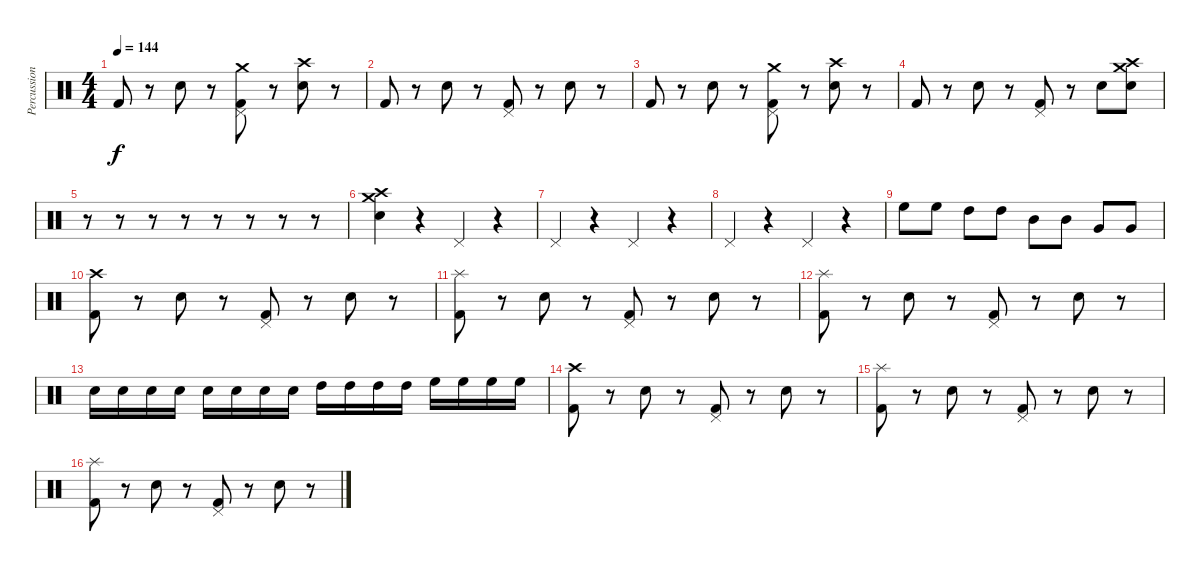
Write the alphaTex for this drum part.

\track ("Percussion" "Percussion") {instrument percussion}
\staff {score}
\articulation defaults
\ts (4 4)
\tempo 144
\clef neutral
\ks c "Kick (hit) 2".8{dy f}
r.8 "Snare (hit) 2".8 r.8 ("Pedal Hi-Hat (hit)" "Kick (hit) 2" "Crash medium (hit)").8 r.8 ("Snare (hit) 2" "Crash high (hit)").8 r.8 |
"Kick (hit) 2".8 r.8 "Snare (hit) 2".8 r.8 ("Pedal Hi-Hat (hit)" "Kick (hit) 2").8 r.8 "Snare (hit) 2".8 r.8 |
"Kick (hit) 2".8 r.8 "Snare (hit) 2".8 r.8 ("Pedal Hi-Hat (hit)" "Kick (hit) 2" "Crash medium (hit)").8 r.8 ("Snare (hit) 2" "Crash high (hit)").8 r.8 |
"Kick (hit) 2".8 r.8 "Snare (hit) 2".8 r.8 ("Pedal Hi-Hat (hit)" "Kick (hit) 2").8 r.8 "Snare (hit) 2".8 ("Snare (hit) 2" "Crash medium (hit)" "Crash high (hit)").8 |
r.8 r.8 r.8 r.8 r.8 r.8 r.8 r.8 |
("Crash medium (hit)" "Crash high (hit)" "Snare (hit) 2").4 r.4 "Pedal Hi-Hat (hit)".4 r.4 |
"Pedal Hi-Hat (hit)".4 r.4 "Pedal Hi-Hat (hit)".4 r.4 |
"Pedal Hi-Hat (hit)".4 r.4 "Pedal Hi-Hat (hit)".4 r.4 |
"High Floor Tom (hit)".8 "High Floor Tom (hit)".8 "High Tom (hit)".8 "High Tom (hit)".8 "Mid Tom (hit)".8 "Mid Tom (hit)".8 "Very Low Tom (hit)".8 "Very Low Tom (hit)".8 |
("Crash high (hit)" "Kick (hit) 2").8 r.8 "Snare (hit) 2".8 r.8 ("Pedal Hi-Hat (hit)" "Kick (hit) 2").8 r.8 "Snare (hit) 2".8 r.8 |
("Kick (hit) 2" "Splash (hit)").8 r.8 "Snare (hit) 2".8 r.8 ("Pedal Hi-Hat (hit)" "Kick (hit) 2").8 r.8 "Snare (hit) 2".8 r.8 |
("Kick (hit) 2" "Splash (hit)").8 r.8 "Snare (hit) 2".8 r.8 ("Pedal Hi-Hat (hit)" "Kick (hit) 2").8 r.8 "Snare (hit) 2".8 r.8 |
"Electric Snare (hit)".16 "Electric Snare (hit)".16 "Electric Snare (hit)".16 "Electric Snare (hit)".16 "Snare (hit) 2".16 "Snare (hit) 2".16 "Snare (hit) 2".16 "Snare (hit) 2".16 "High Tom (hit)".16 "High Tom (hit)".16 "High Tom (hit)".16 "High Tom (hit)".16 "High Floor Tom (hit)".16 "High Floor Tom (hit)".16 "High Floor Tom (hit)".16 "High Floor Tom (hit)".16 |
("Crash high (hit)" "Kick (hit) 2").8 r.8 "Snare (hit) 2".8 r.8 ("Pedal Hi-Hat (hit)" "Kick (hit) 2").8 r.8 "Snare (hit) 2".8 r.8 |
("Kick (hit) 2" "Splash (hit)").8 r.8 "Snare (hit) 2".8 r.8 ("Pedal Hi-Hat (hit)" "Kick (hit) 2").8 r.8 "Snare (hit) 2".8 r.8 |
("Kick (hit) 2" "Splash (hit)").8 r.8 "Snare (hit) 2".8 r.8 ("Pedal Hi-Hat (hit)" "Kick (hit) 2").8 r.8 "Snare (hit) 2".8 r.8
